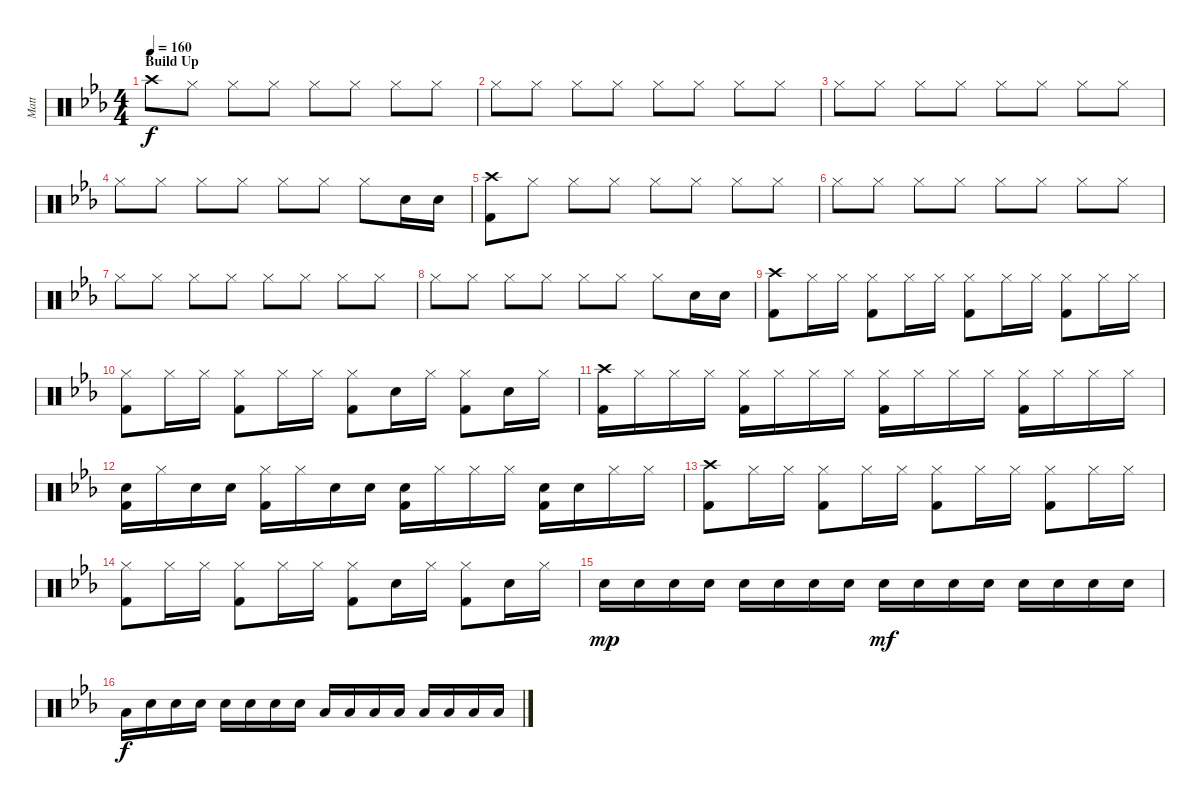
\track ("Matt" "Matt") {instrument percussion}
\staff {score}
\articulation defaults
\ts (4 4)
\section ("" "Build Up")
\tempo 160
\clef neutral
\ks cminor "Crash high (hit)".8{dy f} "Hi-Hat (closed)".8 "Hi-Hat (closed)".8 "Hi-Hat (closed)".8 "Hi-Hat (closed)".8 "Hi-Hat (closed)".8 "Hi-Hat (closed)".8 "Hi-Hat (closed)".8
|
"Hi-Hat (closed)".8 "Hi-Hat (closed)".8 "Hi-Hat (closed)".8 "Hi-Hat (closed)".8 "Hi-Hat (closed)".8 "Hi-Hat (closed)".8 "Hi-Hat (closed)".8 "Hi-Hat (closed)".8 |
"Hi-Hat (closed)".8 "Hi-Hat (closed)".8 "Hi-Hat (closed)".8 "Hi-Hat (closed)".8 "Hi-Hat (closed)".8 "Hi-Hat (closed)".8 "Hi-Hat (closed)".8 "Hi-Hat (closed)".8 |
"Hi-Hat (closed)".8 "Hi-Hat (closed)".8 "Hi-Hat (closed)".8 "Hi-Hat (closed)".8 "Hi-Hat (closed)".8 "Hi-Hat (closed)".8 "Hi-Hat (closed)".8 "Electric Snare (hit)".16 "Electric Snare (hit)".16 |
("Crash high (hit)" "Kick (hit) 2").8 "Hi-Hat (closed)".8 "Hi-Hat (closed)".8 "Hi-Hat (closed)".8 "Hi-Hat (closed)".8 "Hi-Hat (closed)".8 "Hi-Hat (closed)".8 "Hi-Hat (closed)".8 |
"Hi-Hat (closed)".8 "Hi-Hat (closed)".8 "Hi-Hat (closed)".8 "Hi-Hat (closed)".8 "Hi-Hat (closed)".8 "Hi-Hat (closed)".8 "Hi-Hat (closed)".8 "Hi-Hat (closed)".8 |
"Hi-Hat (closed)".8 "Hi-Hat (closed)".8 "Hi-Hat (closed)".8 "Hi-Hat (closed)".8 "Hi-Hat (closed)".8 "Hi-Hat (closed)".8 "Hi-Hat (closed)".8 "Hi-Hat (closed)".8 |
"Hi-Hat (closed)".8 "Hi-Hat (closed)".8 "Hi-Hat (closed)".8 "Hi-Hat (closed)".8 "Hi-Hat (closed)".8 "Hi-Hat (closed)".8 "Hi-Hat (closed)".8 "Electric Snare (hit)".16 "Electric Snare (hit)".16 |
("Crash high (hit)" "Kick (hit) 2").8 "Hi-Hat (closed)".16 "Hi-Hat (closed)".16 ("Hi-Hat (closed)" "Kick (hit) 2").8 "Hi-Hat (closed)".16 "Hi-Hat (closed)".16 ("Hi-Hat (closed)" "Kick (hit) 2").8 "Hi-Hat (closed)".16 "Hi-Hat (closed)".16 ("Hi-Hat (closed)" "Kick (hit) 2").8 "Hi-Hat (closed)".16 "Hi-Hat (closed)".16 |
("Hi-Hat (closed)" "Kick (hit) 2").8 "Hi-Hat (closed)".16 "Hi-Hat (closed)".16 ("Hi-Hat (closed)" "Kick (hit) 2").8 "Hi-Hat (closed)".16 "Hi-Hat (closed)".16 ("Hi-Hat (closed)" "Kick (hit) 2").8 "Electric Snare (hit)".16 "Hi-Hat (closed)".16 ("Hi-Hat (closed)" "Kick (hit) 2").8 "Electric Snare (hit)".16 "Hi-Hat (closed)".16 |
("Crash high (hit)" "Kick (hit) 2").16 "Hi-Hat (closed)".16 "Hi-Hat (closed)".16 "Hi-Hat (closed)".16 ("Hi-Hat (closed)" "Kick (hit) 2").16 "Hi-Hat (closed)".16 "Hi-Hat (closed)".16 "Hi-Hat (closed)".16 ("Hi-Hat (closed)" "Kick (hit) 2").16 "Hi-Hat (closed)".16 "Hi-Hat (closed)".16 "Hi-Hat (closed)".16 ("Hi-Hat (closed)" "Kick (hit) 2").16 "Hi-Hat (closed)".16 "Hi-Hat (closed)".16 "Hi-Hat (closed)".16 |
("Electric Snare (hit)" "Kick (hit) 2").16 "Hi-Hat (closed)".16 "Electric Snare (hit)".16 "Electric Snare (hit)".16 ("Hi-Hat (closed)" "Kick (hit) 2").16 "Hi-Hat (closed)".16 "Electric Snare (hit)".16 "Electric Snare (hit)".16 ("Electric Snare (hit)" "Kick (hit) 2").16 "Hi-Hat (closed)".16 "Hi-Hat (closed)".16 "Hi-Hat (closed)".16 ("Electric Snare (hit)" "Kick (hit) 2").16 "Electric Snare (hit)".16 "Hi-Hat (closed)".16 "Hi-Hat (closed)".16 |
("Crash high (hit)" "Kick (hit) 2").8 "Hi-Hat (closed)".16 "Hi-Hat (closed)".16 ("Hi-Hat (closed)" "Kick (hit) 2").8 "Hi-Hat (closed)".16 "Hi-Hat (closed)".16 ("Hi-Hat (closed)" "Kick (hit) 2").8 "Hi-Hat (closed)".16 "Hi-Hat (closed)".16 ("Hi-Hat (closed)" "Kick (hit) 2").8 "Hi-Hat (closed)".16 "Hi-Hat (closed)".16 |
("Hi-Hat (closed)" "Kick (hit) 2").8 "Hi-Hat (closed)".16 "Hi-Hat (closed)".16 ("Hi-Hat (closed)" "Kick (hit) 2").8 "Hi-Hat (closed)".16 "Hi-Hat (closed)".16 ("Hi-Hat (closed)" "Kick (hit) 2").8 "Electric Snare (hit)".16 "Hi-Hat (closed)".16 ("Hi-Hat (closed)" "Kick (hit) 2").8 "Electric Snare (hit)".16 "Hi-Hat (closed)".16 |
"Electric Snare (hit)".16{dy mp} "Electric Snare (hit)".16 "Electric Snare (hit)".16 "Electric Snare (hit)".16 "Electric Snare (hit)".16 "Electric Snare (hit)".16 "Electric Snare (hit)".16 "Electric Snare (hit)".16 "Electric Snare (hit)".16{dy mf} "Electric Snare (hit)".16 "Electric Snare (hit)".16 "Electric Snare (hit)".16 "Electric Snare (hit)".16 "Electric Snare (hit)".16 "Electric Snare (hit)".16 "Electric Snare (hit)".16 |
"Low Tom (hit)".16{dy f} "Electric Snare (hit)".16 "Electric Snare (hit)".16 "Electric Snare (hit)".16 "Electric Snare (hit)".16 "Electric Snare (hit)".16 "Electric Snare (hit)".16 "Electric Snare (hit)".16 "Low Tom (hit)".16 "Low Tom (hit)".16 "Low Tom (hit)".16 "Low Tom (hit)".16 "Low Tom (hit)".16 "Low Tom (hit)".16 "Low Tom (hit)".16 "Low Tom (hit)".16
